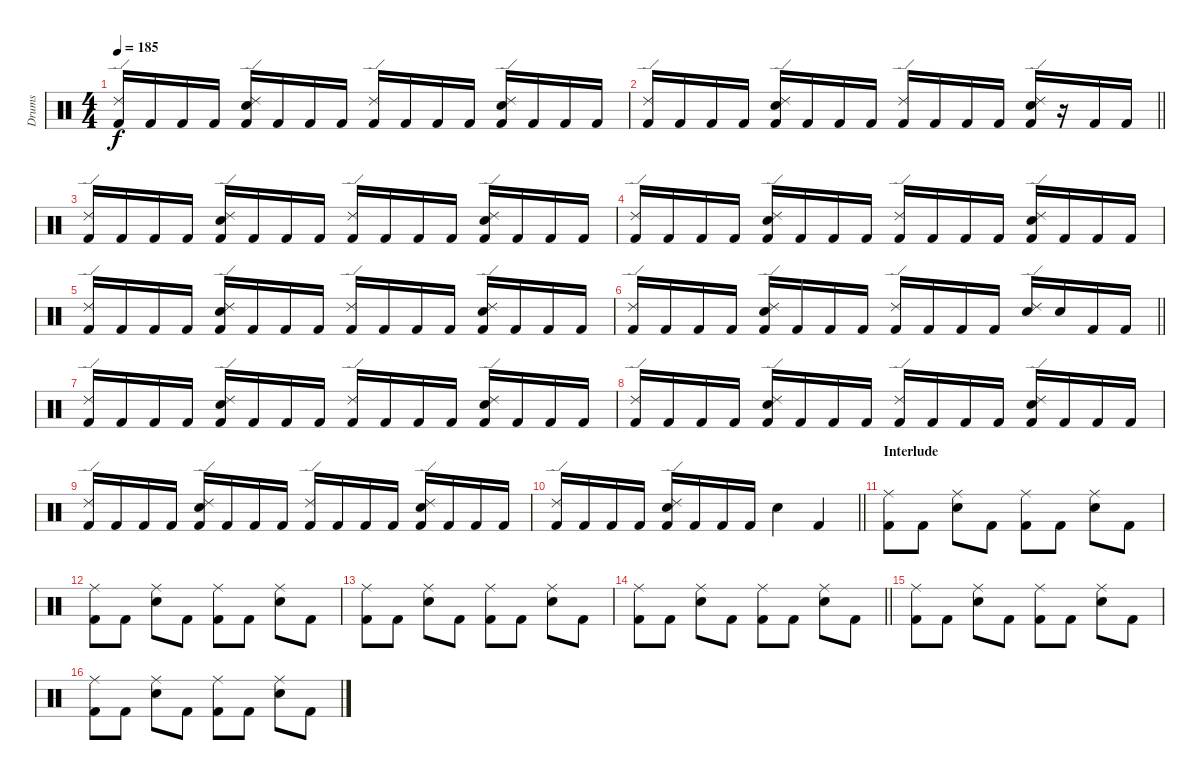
\track ("Drums" "Drums") {instrument percussion}
\staff {score}
\articulation defaults
\ts (4 4)
\tempo 185
\clef neutral
\ks c
("Ride (edge) 2" "Kick (hit) 2").16{dy f} "Kick (hit) 2".16 "Kick (hit) 2".16 "Kick (hit) 2".16 ("Ride (edge) 2" "Electric Snare (hit)" "Kick (hit) 2").16 "Kick (hit) 2".16 "Kick (hit) 2".16 "Kick (hit) 2".16 ("Ride (edge) 2" "Kick (hit) 2").16 "Kick (hit) 2".16 "Kick (hit) 2".16 "Kick (hit) 2".16 ("Ride (edge) 2" "Electric Snare (hit)" "Kick (hit) 2").16 "Kick (hit) 2".16 "Kick (hit) 2".16 "Kick (hit) 2".16 |
\barLineRight lightlight
("Ride (edge) 2" "Kick (hit) 2").16 "Kick (hit) 2".16 "Kick (hit) 2".16 "Kick (hit) 2".16 ("Ride (edge) 2" "Electric Snare (hit)" "Kick (hit) 2").16 "Kick (hit) 2".16 "Kick (hit) 2".16 "Kick (hit) 2".16 ("Ride (edge) 2" "Kick (hit) 2").16 "Kick (hit) 2".16 "Kick (hit) 2".16 "Kick (hit) 2".16 ("Ride (edge) 2" "Electric Snare (hit)" "Kick (hit) 2").16 r.16 "Kick (hit) 2".16 "Kick (hit) 2".16 |
("Ride (edge) 2" "Kick (hit) 2").16 "Kick (hit) 2".16 "Kick (hit) 2".16 "Kick (hit) 2".16 ("Ride (edge) 2" "Electric Snare (hit)" "Kick (hit) 2").16 "Kick (hit) 2".16 "Kick (hit) 2".16 "Kick (hit) 2".16 ("Ride (edge) 2" "Kick (hit) 2").16 "Kick (hit) 2".16 "Kick (hit) 2".16 "Kick (hit) 2".16 ("Ride (edge) 2" "Electric Snare (hit)" "Kick (hit) 2").16 "Kick (hit) 2".16 "Kick (hit) 2".16 "Kick (hit) 2".16 |
("Ride (edge) 2" "Kick (hit) 2").16 "Kick (hit) 2".16 "Kick (hit) 2".16 "Kick (hit) 2".16 ("Ride (edge) 2" "Electric Snare (hit)" "Kick (hit) 2").16 "Kick (hit) 2".16 "Kick (hit) 2".16 "Kick (hit) 2".16 ("Ride (edge) 2" "Kick (hit) 2").16 "Kick (hit) 2".16 "Kick (hit) 2".16 "Kick (hit) 2".16 ("Ride (edge) 2" "Electric Snare (hit)" "Kick (hit) 2").16 "Kick (hit) 2".16 "Kick (hit) 2".16 "Kick (hit) 2".16 |
("Ride (edge) 2" "Kick (hit) 2").16 "Kick (hit) 2".16 "Kick (hit) 2".16 "Kick (hit) 2".16 ("Ride (edge) 2" "Electric Snare (hit)" "Kick (hit) 2").16 "Kick (hit) 2".16 "Kick (hit) 2".16 "Kick (hit) 2".16 ("Ride (edge) 2" "Kick (hit) 2").16 "Kick (hit) 2".16 "Kick (hit) 2".16 "Kick (hit) 2".16 ("Ride (edge) 2" "Electric Snare (hit)" "Kick (hit) 2").16 "Kick (hit) 2".16 "Kick (hit) 2".16 "Kick (hit) 2".16 |
\barLineRight lightlight
("Ride (edge) 2" "Kick (hit) 2").16 "Kick (hit) 2".16 "Kick (hit) 2".16 "Kick (hit) 2".16 ("Ride (edge) 2" "Electric Snare (hit)" "Kick (hit) 2").16 "Kick (hit) 2".16 "Kick (hit) 2".16 "Kick (hit) 2".16 ("Ride (edge) 2" "Kick (hit) 2").16 "Kick (hit) 2".16 "Kick (hit) 2".16 "Kick (hit) 2".16 ("Ride (edge) 2" "Electric Snare (hit)").16 "Electric Snare (hit)".16 "Kick (hit) 2".16 "Kick (hit) 2".16 |
\section ("" "")
("Ride (edge) 2" "Kick (hit) 2").16 "Kick (hit) 2".16 "Kick (hit) 2".16 "Kick (hit) 2".16 ("Ride (edge) 2" "Electric Snare (hit)" "Kick (hit) 2").16 "Kick (hit) 2".16 "Kick (hit) 2".16 "Kick (hit) 2".16 ("Ride (edge) 2" "Kick (hit) 2").16 "Kick (hit) 2".16 "Kick (hit) 2".16 "Kick (hit) 2".16 ("Ride (edge) 2" "Electric Snare (hit)" "Kick (hit) 2").16 "Kick (hit) 2".16 "Kick (hit) 2".16 "Kick (hit) 2".16 |
("Ride (edge) 2" "Kick (hit) 2").16 "Kick (hit) 2".16 "Kick (hit) 2".16 "Kick (hit) 2".16 ("Ride (edge) 2" "Electric Snare (hit)" "Kick (hit) 2").16 "Kick (hit) 2".16 "Kick (hit) 2".16 "Kick (hit) 2".16 ("Ride (edge) 2" "Kick (hit) 2").16 "Kick (hit) 2".16 "Kick (hit) 2".16 "Kick (hit) 2".16 ("Ride (edge) 2" "Electric Snare (hit)" "Kick (hit) 2").16 "Kick (hit) 2".16 "Kick (hit) 2".16 "Kick (hit) 2".16 |
("Ride (edge) 2" "Kick (hit) 2").16 "Kick (hit) 2".16 "Kick (hit) 2".16 "Kick (hit) 2".16 ("Ride (edge) 2" "Electric Snare (hit)" "Kick (hit) 2").16 "Kick (hit) 2".16 "Kick (hit) 2".16 "Kick (hit) 2".16 ("Ride (edge) 2" "Kick (hit) 2").16 "Kick (hit) 2".16 "Kick (hit) 2".16 "Kick (hit) 2".16 ("Ride (edge) 2" "Electric Snare (hit)" "Kick (hit) 2").16 "Kick (hit) 2".16 "Kick (hit) 2".16 "Kick (hit) 2".16 |
\barLineRight lightlight
("Ride (edge) 2" "Kick (hit) 2").16 "Kick (hit) 2".16 "Kick (hit) 2".16 "Kick (hit) 2".16 ("Ride (edge) 2" "Electric Snare (hit)" "Kick (hit) 2").16 "Kick (hit) 2".16 "Kick (hit) 2".16 "Kick (hit) 2".16 "Electric Snare (hit)".4 "Kick (hit) 2".4 |
\section ("" "Interlude")
("Ride (middle)" "Kick (hit) 2").8 "Kick (hit) 2".8 ("Ride (middle)" "Electric Snare (hit)").8 "Kick (hit) 2".8 ("Ride (middle)" "Kick (hit) 2").8 "Kick (hit) 2".8 ("Ride (middle)" "Electric Snare (hit)").8 "Kick (hit) 2".8 |
("Ride (middle)" "Kick (hit) 2").8 "Kick (hit) 2".8 ("Ride (middle)" "Electric Snare (hit)").8 "Kick (hit) 2".8 ("Ride (middle)" "Kick (hit) 2").8 "Kick (hit) 2".8 ("Ride (middle)" "Electric Snare (hit)").8 "Kick (hit) 2".8 |
("Ride (middle)" "Kick (hit) 2").8 "Kick (hit) 2".8 ("Ride (middle)" "Electric Snare (hit)").8 "Kick (hit) 2".8 ("Ride (middle)" "Kick (hit) 2").8 "Kick (hit) 2".8 ("Ride (middle)" "Electric Snare (hit)").8 "Kick (hit) 2".8 |
\barLineRight lightlight
("Ride (middle)" "Kick (hit) 2").8 "Kick (hit) 2".8 ("Ride (middle)" "Electric Snare (hit)").8 "Kick (hit) 2".8 ("Ride (middle)" "Kick (hit) 2").8 "Kick (hit) 2".8 ("Ride (middle)" "Electric Snare (hit)").8 "Kick (hit) 2".8 |
\section ("" "")
("Ride (middle)" "Kick (hit) 2").8 "Kick (hit) 2".8 ("Ride (middle)" "Electric Snare (hit)").8 "Kick (hit) 2".8 ("Ride (middle)" "Kick (hit) 2").8 "Kick (hit) 2".8 ("Ride (middle)" "Electric Snare (hit)").8 "Kick (hit) 2".8 |
("Ride (middle)" "Kick (hit) 2").8 "Kick (hit) 2".8 ("Ride (middle)" "Electric Snare (hit)").8 "Kick (hit) 2".8 ("Ride (middle)" "Kick (hit) 2").8 "Kick (hit) 2".8 ("Ride (middle)" "Electric Snare (hit)").8 "Kick (hit) 2".8
